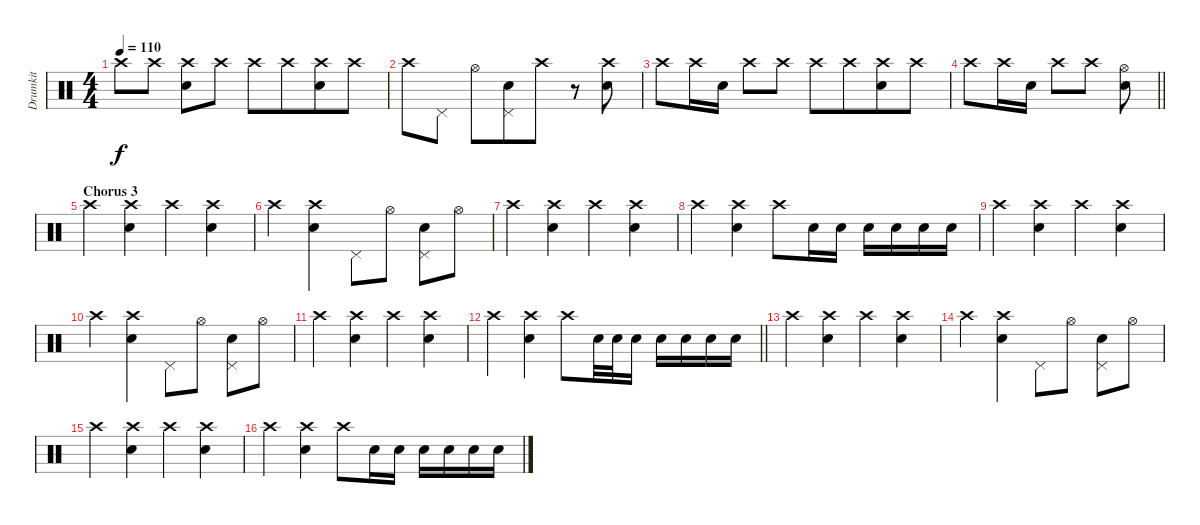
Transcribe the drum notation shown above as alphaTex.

\track ("Drumkit" "Drumkit") {instrument percussion}
\staff {score}
\articulation defaults
\ts (4 4)
\tempo 110
\clef neutral
\ks c "Crash high (hit)".8{dy f} "Crash high (hit)".8
("Crash high (hit)" "Electric Snare (hit)").8 "Crash high (hit)".8 "Crash high (hit)".8 "Crash high (hit)".8{beam merge} ("Crash high (hit)" "Electric Snare (hit)").8 "Crash high (hit)".8 |
"Crash high (hit)".8 "Pedal Hi-Hat (hit)".8 "Hi-Hat (open)".8 ("Pedal Hi-Hat (hit)" "Electric Snare (hit)").8{beam merge} "Crash high (hit)".8 r.8{beam merge} ("Crash high (hit)" "Electric Snare (hit)").8 |
"Crash high (hit)".8 "Crash high (hit)".16 "Electric Snare (hit)".16 "Crash high (hit)".8 "Crash high (hit)".8 "Crash high (hit)".8 "Crash high (hit)".8{beam merge} ("Crash high (hit)" "Electric Snare (hit)").8 "Crash high (hit)".8 |
\barLineRight lightlight "Crash high (hit)".8 "Crash high (hit)".16 "Electric Snare (hit)".16 "Crash high (hit)".8 "Crash high (hit)".8
("Hi-Hat (open)" "Electric Snare (hit)").8 |
\section ("" "Chorus 3")
"Crash high (hit)".4{beam merge} ("Crash high (hit)" "Electric Snare (hit)").4{beam merge} "Crash high (hit)".4 ("Crash high (hit)" "Electric Snare (hit)").4 |
"Crash high (hit)".4 ("Crash high (hit)" "Electric Snare (hit)").4{beam merge} "Pedal Hi-Hat (hit)".8 "Hi-Hat (open)".8 ("Pedal Hi-Hat (hit)" "Electric Snare (hit)").8 "Hi-Hat (open)".8 |
"Crash high (hit)".4{beam merge} ("Crash high (hit)" "Electric Snare (hit)").4{beam merge} "Crash high (hit)".4 ("Crash high (hit)" "Electric Snare (hit)").4 |
"Crash high (hit)".4{beam merge} ("Crash high (hit)" "Electric Snare (hit)").4{beam merge} "Crash high (hit)".8 "Electric Snare (hit)".16 "Electric Snare (hit)".16 "Electric Snare (hit)".16{beam merge} "Electric Snare (hit)".16 "Electric Snare (hit)".16 "Electric Snare (hit)".16 |
"Crash high (hit)".4{beam merge} ("Crash high (hit)" "Electric Snare (hit)").4{beam merge} "Crash high (hit)".4 ("Crash high (hit)" "Electric Snare (hit)").4 |
"Crash high (hit)".4 ("Crash high (hit)" "Electric Snare (hit)").4{beam merge} "Pedal Hi-Hat (hit)".8 "Hi-Hat (open)".8 ("Pedal Hi-Hat (hit)" "Electric Snare (hit)").8 "Hi-Hat (open)".8 |
"Crash high (hit)".4{beam merge} ("Crash high (hit)" "Electric Snare (hit)").4{beam merge} "Crash high (hit)".4 ("Crash high (hit)" "Electric Snare (hit)").4 |
\barLineRight lightlight "Crash high (hit)".4{beam merge}
("Crash high (hit)" "Electric Snare (hit)").4{beam merge} "Crash high (hit)".8 "Electric Snare (hit)".32 "Electric Snare (hit)".32 "Electric Snare (hit)".16 "Electric Snare (hit)".16{beam merge} "Electric Snare (hit)".16 "Electric Snare (hit)".16 "Electric Snare (hit)".16 |
"Crash high (hit)".4{beam merge} ("Crash high (hit)" "Electric Snare (hit)").4{beam merge} "Crash high (hit)".4 ("Crash high (hit)" "Electric Snare (hit)").4 |
"Crash high (hit)".4 ("Crash high (hit)" "Electric Snare (hit)").4{beam merge} "Pedal Hi-Hat (hit)".8 "Hi-Hat (open)".8 ("Pedal Hi-Hat (hit)" "Electric Snare (hit)").8 "Hi-Hat (open)".8 |
"Crash high (hit)".4{beam merge} ("Crash high (hit)" "Electric Snare (hit)").4{beam merge} "Crash high (hit)".4 ("Crash high (hit)" "Electric Snare (hit)").4 |
"Crash high (hit)".4{beam merge} ("Crash high (hit)" "Electric Snare (hit)").4{beam merge} "Crash high (hit)".8 "Electric Snare (hit)".16 "Electric Snare (hit)".16 "Electric Snare (hit)".16{beam merge} "Electric Snare (hit)".16 "Electric Snare (hit)".16 "Electric Snare (hit)".16
